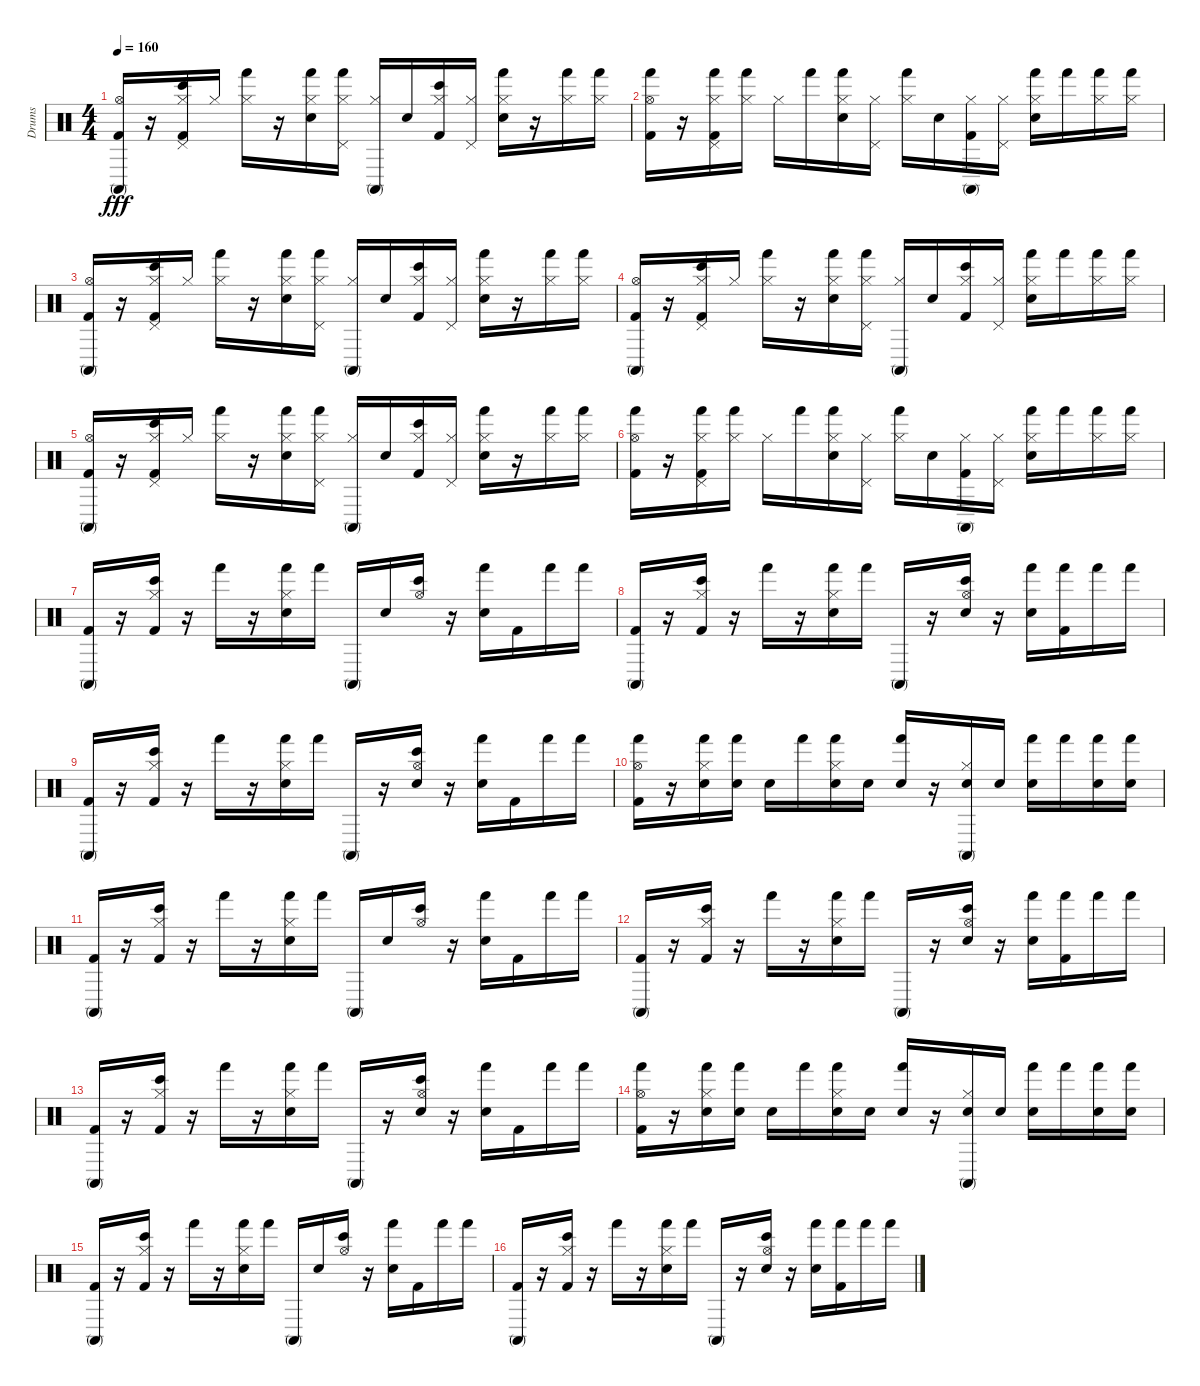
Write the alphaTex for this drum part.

\track ("Drums" "Drums") {instrument percussion}
\staff {score}
\articulation defaults
\ts (4 4)
\tempo 160
\clef neutral
\ks c
("Hi-Hat (open)" "Kick (hit) 2" "Conga high (mute)").16{dy fff} r.16 ("Kick (hit) 2" "Hi-Hat (closed)" "Bongo High (hit)" "Pedal Hi-Hat (hit)").16 "Hi-Hat (closed)".16 ("Hi-Hat (closed)" "Hand (hit)").16 r.16 ("Hi-Hat (closed)" "Hand (hit)" "Electric Snare (hit)").16 ("Pedal Hi-Hat (hit)" "Hi-Hat (closed)" "Hand (hit)").16 ("Hi-Hat (closed)" "Conga high (mute)").16 "Electric Snare (hit)".16 ("Bongo High (hit)" "Hi-Hat (closed)" "Kick (hit) 2").16 ("Hi-Hat (closed)" "Pedal Hi-Hat (hit)").16 ("Electric Snare (hit)" "Hand (hit)" "Hi-Hat (closed)").16 r.16 ("Hand (hit)" "Hi-Hat (closed)").16 ("Hi-Hat (closed)" "Hand (hit)").16 |
("Kick (hit) 2" "Hand (hit)" "Hi-Hat (open)").16 r.16 ("Hi-Hat (closed)" "Hand (hit)" "Pedal Hi-Hat (hit)" "Kick (hit) 2").16 ("Hi-Hat (closed)" "Hand (hit)").16 "Hi-Hat (closed)".16 "Hand (hit)".16 ("Hand (hit)" "Hi-Hat (closed)" "Electric Snare (hit)").16 ("Pedal Hi-Hat (hit)" "Hi-Hat (closed)").16 ("Hand (hit)" "Hi-Hat (closed)").16 "Electric Snare (hit)".16 ("Conga high (mute)" "Hi-Hat (closed)" "Kick (hit) 2").16 ("Hi-Hat (closed)" "Pedal Hi-Hat (hit)").16 ("Hand (hit)" "Hi-Hat (closed)" "Electric Snare (hit)").16 "Hand (hit)".16 ("Hi-Hat (closed)" "Hand (hit)").16 ("Hand (hit)" "Hi-Hat (closed)").16 |
("Kick (hit) 2" "Conga high (mute)" "Hi-Hat (open)").16 r.16 ("Pedal Hi-Hat (hit)" "Hi-Hat (closed)" "Kick (hit) 2" "Bongo High (hit)").16 "Hi-Hat (closed)".16 ("Hi-Hat (closed)" "Hand (hit)").16 r.16 ("Electric Snare (hit)" "Hi-Hat (closed)" "Hand (hit)").16 ("Hi-Hat (closed)" "Pedal Hi-Hat (hit)" "Hand (hit)").16 ("Conga high (mute)" "Hi-Hat (closed)").16 "Electric Snare (hit)".16 ("Bongo High (hit)" "Kick (hit) 2" "Hi-Hat (closed)").16 ("Hi-Hat (closed)" "Pedal Hi-Hat (hit)").16 ("Electric Snare (hit)" "Hi-Hat (closed)" "Hand (hit)").16 r.16 ("Hi-Hat (closed)" "Hand (hit)").16 ("Hi-Hat (closed)" "Hand (hit)").16 |
("Hi-Hat (open)" "Conga high (mute)" "Kick (hit) 2").16 r.16 ("Kick (hit) 2" "Pedal Hi-Hat (hit)" "Bongo High (hit)" "Hi-Hat (closed)").16 "Hi-Hat (closed)".16 ("Hand (hit)" "Hi-Hat (closed)").16 r.16 ("Hi-Hat (closed)" "Hand (hit)" "Electric Snare (hit)").16 ("Hi-Hat (closed)" "Pedal Hi-Hat (hit)" "Hand (hit)").16 ("Conga high (mute)" "Hi-Hat (closed)").16 "Electric Snare (hit)".16 ("Bongo High (hit)" "Hi-Hat (closed)" "Kick (hit) 2").16 ("Hi-Hat (closed)" "Pedal Hi-Hat (hit)").16 ("Hi-Hat (closed)" "Electric Snare (hit)" "Hand (hit)").16 "Hand (hit)".16 ("Hand (hit)" "Hi-Hat (closed)").16 ("Hand (hit)" "Hi-Hat (closed)").16 |
("Hi-Hat (open)" "Kick (hit) 2" "Conga high (mute)").16 r.16 ("Pedal Hi-Hat (hit)" "Hi-Hat (closed)" "Bongo High (hit)" "Kick (hit) 2").16 "Hi-Hat (closed)".16 ("Hand (hit)" "Hi-Hat (closed)").16 r.16 ("Hi-Hat (closed)" "Electric Snare (hit)" "Hand (hit)").16 ("Pedal Hi-Hat (hit)" "Hi-Hat (closed)" "Hand (hit)").16 ("Hi-Hat (closed)" "Conga high (mute)").16 "Electric Snare (hit)".16 ("Bongo High (hit)" "Hi-Hat (closed)" "Kick (hit) 2").16 ("Hi-Hat (closed)" "Pedal Hi-Hat (hit)").16 ("Electric Snare (hit)" "Hand (hit)" "Hi-Hat (closed)").16 r.16 ("Hand (hit)" "Hi-Hat (closed)").16 ("Hand (hit)" "Hi-Hat (closed)").16 |
("Hand (hit)" "Kick (hit) 2" "Hi-Hat (open)").16 r.16 ("Kick (hit) 2" "Pedal Hi-Hat (hit)" "Hi-Hat (closed)" "Hand (hit)").16 ("Hi-Hat (closed)" "Hand (hit)").16 "Hi-Hat (closed)".16 "Hand (hit)".16 ("Hi-Hat (closed)" "Hand (hit)" "Electric Snare (hit)").16 ("Hi-Hat (closed)" "Pedal Hi-Hat (hit)").16 ("Hand (hit)" "Hi-Hat (closed)").16 "Electric Snare (hit)".16 ("Conga high (mute)" "Hi-Hat (closed)" "Kick (hit) 2").16 ("Hi-Hat (closed)" "Pedal Hi-Hat (hit)").16 ("Hi-Hat (closed)" "Hand (hit)" "Electric Snare (hit)").16 "Hand (hit)".16 ("Hi-Hat (closed)" "Hand (hit)").16 ("Hi-Hat (closed)" "Hand (hit)").16 |
("Kick (hit) 2" "Conga high (mute)").16 r.16 ("Kick (hit) 2" "Hi-Hat (closed)" "Bongo High (hit)").16 r.16 "Hand (hit)".16 r.16 ("Hand (hit)" "Electric Snare (hit)" "Hi-Hat (closed)").16 "Hand (hit)".16 "Conga high (mute)".16 "Electric Snare (hit)".16 ("Hi-Hat (open)" "Bongo High (hit)").16 r.16 ("Hand (hit)" "Electric Snare (hit)").16 "Kick (hit) 2".16 "Hand (hit)".16 "Hand (hit)".16 |
("Kick (hit) 2" "Conga high (mute)").16 r.16 ("Bongo High (hit)" "Kick (hit) 2" "Hi-Hat (closed)").16 r.16 "Hand (hit)".16 r.16 ("Hi-Hat (closed)" "Hand (hit)" "Electric Snare (hit)").16 "Hand (hit)".16 "Conga high (mute)".16 r.16 ("Hi-Hat (open)" "Electric Snare (hit)" "Bongo High (hit)").16 r.16 ("Electric Snare (hit)" "Hand (hit)").16 ("Kick (hit) 2" "Hand (hit)").16 "Hand (hit)".16 "Hand (hit)".16 |
("Conga high (mute)" "Kick (hit) 2").16 r.16 ("Bongo High (hit)" "Kick (hit) 2" "Hi-Hat (closed)").16 r.16 "Hand (hit)".16 r.16 ("Hi-Hat (closed)" "Hand (hit)" "Electric Snare (hit)").16 "Hand (hit)".16 "Conga high (mute)".16 r.16 ("Electric Snare (hit)" "Hi-Hat (open)" "Bongo High (hit)").16 r.16 ("Electric Snare (hit)" "Hand (hit)").16 "Kick (hit) 2".16 "Hand (hit)".16 "Hand (hit)".16 |
("Hand (hit)" "Kick (hit) 2" "Hi-Hat (open)").16 r.16 ("Hi-Hat (closed)" "Hand (hit)" "Electric Snare (hit)").16 ("Electric Snare (hit)" "Hand (hit)").16 "Electric Snare (hit)".16 "Hand (hit)".16 ("Electric Snare (hit)" "Hand (hit)" "Hi-Hat (closed)").16 "Electric Snare (hit)".16 ("Hand (hit)" "Electric Snare (hit)").16 r.16 ("Conga high (mute)" "Hi-Hat (closed)" "Electric Snare (hit)").16 "Electric Snare (hit)".16 ("Electric Snare (hit)" "Hand (hit)").16 "Hand (hit)".16 ("Hand (hit)" "Electric Snare (hit)").16 ("Hand (hit)" "Electric Snare (hit)").16 |
("Conga high (mute)" "Kick (hit) 2").16 r.16 ("Hi-Hat (closed)" "Kick (hit) 2" "Bongo High (hit)").16 r.16 "Hand (hit)".16 r.16 ("Hand (hit)" "Electric Snare (hit)" "Hi-Hat (closed)").16 "Hand (hit)".16 "Conga high (mute)".16 "Electric Snare (hit)".16 ("Hi-Hat (open)" "Bongo High (hit)").16 r.16 ("Hand (hit)" "Electric Snare (hit)").16 "Kick (hit) 2".16 "Hand (hit)".16 "Hand (hit)".16 |
("Kick (hit) 2" "Conga high (mute)").16 r.16 ("Kick (hit) 2" "Hi-Hat (closed)" "Bongo High (hit)").16 r.16 "Hand (hit)".16 r.16 ("Hand (hit)" "Electric Snare (hit)" "Hi-Hat (closed)").16 "Hand (hit)".16 "Conga high (mute)".16 r.16 ("Electric Snare (hit)" "Hi-Hat (open)" "Bongo High (hit)").16 r.16 ("Hand (hit)" "Electric Snare (hit)").16 ("Kick (hit) 2" "Hand (hit)").16 "Hand (hit)".16 "Hand (hit)".16 |
("Conga high (mute)" "Kick (hit) 2").16 r.16 ("Kick (hit) 2" "Bongo High (hit)" "Hi-Hat (closed)").16 r.16 "Hand (hit)".16 r.16 ("Hi-Hat (closed)" "Hand (hit)" "Electric Snare (hit)").16 "Hand (hit)".16 "Conga high (mute)".16 r.16 ("Bongo High (hit)" "Electric Snare (hit)" "Hi-Hat (open)").16 r.16 ("Electric Snare (hit)" "Hand (hit)").16 "Kick (hit) 2".16 "Hand (hit)".16 "Hand (hit)".16 |
("Hi-Hat (open)" "Kick (hit) 2" "Hand (hit)").16 r.16 ("Hand (hit)" "Electric Snare (hit)" "Hi-Hat (closed)").16 ("Electric Snare (hit)" "Hand (hit)").16 "Electric Snare (hit)".16 "Hand (hit)".16 ("Hi-Hat (closed)" "Electric Snare (hit)" "Hand (hit)").16 "Electric Snare (hit)".16 ("Electric Snare (hit)" "Hand (hit)").16 r.16 ("Electric Snare (hit)" "Conga high (mute)" "Hi-Hat (closed)").16 "Electric Snare (hit)".16 ("Hand (hit)" "Electric Snare (hit)").16 "Hand (hit)".16 ("Electric Snare (hit)" "Hand (hit)").16 ("Hand (hit)" "Electric Snare (hit)").16 |
("Kick (hit) 2" "Conga high (mute)").16 r.16 ("Kick (hit) 2" "Bongo High (hit)" "Hi-Hat (closed)").16 r.16 "Hand (hit)".16 r.16 ("Hand (hit)" "Hi-Hat (closed)" "Electric Snare (hit)").16 "Hand (hit)".16 "Conga high (mute)".16 "Electric Snare (hit)".16 ("Bongo High (hit)" "Hi-Hat (open)").16 r.16 ("Hand (hit)" "Electric Snare (hit)").16 "Kick (hit) 2".16 "Hand (hit)".16 "Hand (hit)".16 |
("Conga high (mute)" "Kick (hit) 2").16 r.16 ("Bongo High (hit)" "Hi-Hat (closed)" "Kick (hit) 2").16 r.16 "Hand (hit)".16 r.16 ("Hi-Hat (closed)" "Hand (hit)" "Electric Snare (hit)").16 "Hand (hit)".16 "Conga high (mute)".16 r.16 ("Hi-Hat (open)" "Bongo High (hit)" "Electric Snare (hit)").16 r.16 ("Hand (hit)" "Electric Snare (hit)").16 ("Hand (hit)" "Kick (hit) 2").16 "Hand (hit)".16 "Hand (hit)".16
